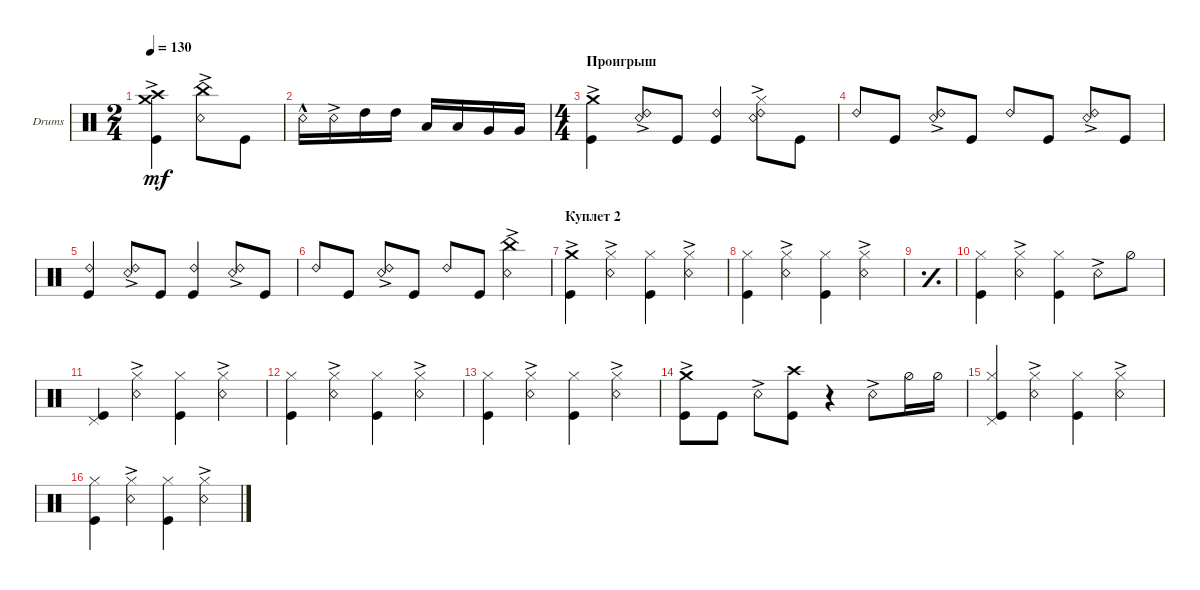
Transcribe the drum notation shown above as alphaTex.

\defaultSystemsLayout 4
\bracketExtendMode groupsimilarinstruments
\firstSystemTrackNameOrientation horizontal
\otherSystemsTrackNameOrientation horizontal
\track ("Drumkit" "Drums") {instrument percussion}
\staff {score}
\articulation defaults
\ts (2 4)
\tempo 130
\clef neutral
\ks c
("Crash medium (hit)"{ac} "Crash high (hit)" "Kick (hit)").4{dy mf} ("Snare (rim shot)"{ac} "China (hit)").8 "Kick (hit)".8 |
"Snare (rim shot)"{hac}.16 "Snare (rim shot)"{ac}.16 "High Tom (hit)".16 "High Tom (hit)".16 "Low Tom (hit)".16 "Low Tom (hit)".16 "Very Low Tom (hit)".16 "Very Low Tom (hit)".16 |
\ts (4 4)
\section ("" "Проигрыш")
("Crash medium (hit)"{ac} "Kick (hit)").4 ("Ride (bell) 2" "Snare (rim shot)"{ac}).8 "Kick (hit)".8 ("Kick (hit)" "Ride (bell) 2").4 ("Hi-Hat (closed)" "Snare (rim shot)"{ac} "Ride (bell) 2").8 "Kick (hit)".8 |
"Ride (bell) 2".8 "Kick (hit)".8 ("Ride (bell) 2" "Snare (rim shot)"{ac}).8 "Kick (hit)".8 "Ride (bell) 2".8 "Kick (hit)".8 ("Ride (bell) 2" "Snare (rim shot)"{ac}).8 "Kick (hit)".8 |
("Kick (hit)" "Ride (bell) 2").4 ("Ride (bell) 2" "Snare (rim shot)"{ac}).8 "Kick (hit)".8 ("Kick (hit)" "Ride (bell) 2").4 ("Snare (rim shot)"{ac} "Ride (bell) 2").8 "Kick (hit)".8 |
"Ride (bell) 2".8 "Kick (hit)".8 ("Ride (bell) 2" "Snare (rim shot)"{ac}).8 "Kick (hit)".8 "Ride (bell) 2".8 "Kick (hit)".8 ("Snare (rim shot)"{ac} "China (hit)").4 |
\section ("" "Куплет 2")
("Crash medium (hit)"{ac} "Kick (hit)").4 ("Hi-Hat (closed)" "Snare (rim shot)"{ac}).4 ("Hi-Hat (closed)" "Kick (hit)").4 ("Hi-Hat (closed)" "Snare (rim shot)"{ac}).4 |
("Hi-Hat (closed)" "Kick (hit)").4 ("Hi-Hat (closed)" "Snare (rim shot)"{ac}).4 ("Hi-Hat (closed)" "Kick (hit)").4 ("Hi-Hat (closed)" "Snare (rim shot)"{ac}).4 |
\simile simple
|
\simile none
("Hi-Hat (closed)" "Kick (hit)").4 ("Hi-Hat (closed)" "Snare (rim shot)"{ac}).4 ("Hi-Hat (closed)" "Kick (hit)").4 "Snare (rim shot)"{ac}.8 "Hi-Hat (half)".8 |
("Pedal Hi-Hat (hit)" "Kick (hit)").4 ("Hi-Hat (closed)" "Snare (rim shot)"{ac}).4 ("Hi-Hat (closed)" "Kick (hit)").4 ("Hi-Hat (closed)" "Snare (rim shot)"{ac}).4 |
("Hi-Hat (closed)" "Kick (hit)").4 ("Hi-Hat (closed)" "Snare (rim shot)"{ac}).4 ("Hi-Hat (closed)" "Kick (hit)").4 ("Hi-Hat (closed)" "Snare (rim shot)"{ac}).4 |
("Hi-Hat (closed)" "Kick (hit)").4 ("Hi-Hat (closed)" "Snare (rim shot)"{ac}).4 ("Hi-Hat (closed)" "Kick (hit)").4 ("Hi-Hat (closed)" "Snare (rim shot)"{ac}).4 |
("Kick (hit)" "Crash medium (hit)"{ac}).8 "Kick (hit)".8 "Snare (rim shot)"{ac}.8 ("Kick (hit)" "Crash high (hit)").8 r.4 "Snare (rim shot)"{ac}.8 "Hi-Hat (half)".16 "Hi-Hat (half)".16 |
("Hi-Hat (closed)" "Kick (hit)" "Pedal Hi-Hat (hit)").4 ("Hi-Hat (closed)" "Snare (rim shot)"{ac}).4 ("Hi-Hat (closed)" "Kick (hit)").4 ("Hi-Hat (closed)" "Snare (rim shot)"{ac}).4 |
("Hi-Hat (closed)" "Kick (hit)").4 ("Hi-Hat (closed)" "Snare (rim shot)"{ac}).4 ("Hi-Hat (closed)" "Kick (hit)").4 ("Hi-Hat (closed)" "Snare (rim shot)"{ac}).4
